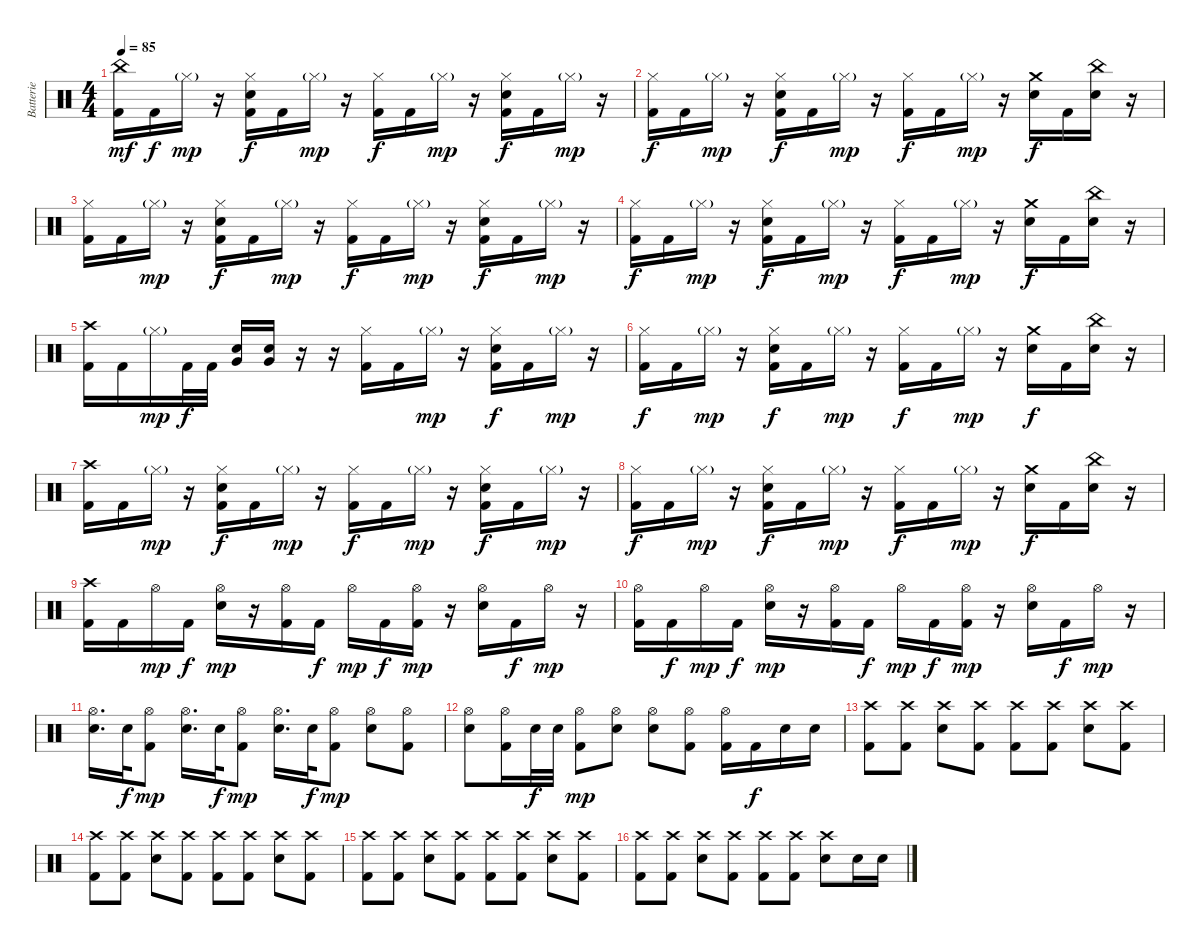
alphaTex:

\track ("Batterie" "Batterie") {instrument percussion}
\staff {score}
\articulation defaults
\ts (4 4)
\tempo 85
\clef neutral
\ks c
("China (hit)" "Kick (hit) 2").16{dy mf} "Kick (hit) 2".16{dy f} "Hi-Hat (closed)"{g}.16{dy mp} r.16 ("Hi-Hat (closed)" "Electric Snare (hit)" "Kick (hit) 2").16{dy f} "Kick (hit) 2".16 "Hi-Hat (closed)"{g}.16{dy mp} r.16 ("Hi-Hat (closed)" "Kick (hit) 2").16{dy f} "Kick (hit) 2".16 "Hi-Hat (closed)"{g}.16{dy mp} r.16 ("Hi-Hat (closed)" "Electric Snare (hit)" "Kick (hit) 2").16{dy f} "Kick (hit) 2".16 "Hi-Hat (closed)"{g}.16{dy mp} r.16 |
("Hi-Hat (closed)" "Kick (hit) 2").16{dy f} "Kick (hit) 2".16 "Hi-Hat (closed)"{g}.16{dy mp} r.16 ("Hi-Hat (closed)" "Electric Snare (hit)" "Kick (hit) 2").16{dy f} "Kick (hit) 2".16 "Hi-Hat (closed)"{g}.16{dy mp} r.16 ("Hi-Hat (closed)" "Kick (hit) 2").16{dy f} "Kick (hit) 2".16 "Hi-Hat (closed)"{g}.16{dy mp} r.16 ("Crash medium (hit)" "Electric Snare (hit)").16{dy f} "Kick (hit) 2".16 ("China (hit)" "Electric Snare (hit)").16 r.16 |
("Hi-Hat (closed)" "Kick (hit) 2").16 "Kick (hit) 2".16 "Hi-Hat (closed)"{g}.16{dy mp} r.16 ("Hi-Hat (closed)" "Electric Snare (hit)" "Kick (hit) 2").16{dy f} "Kick (hit) 2".16 "Hi-Hat (closed)"{g}.16{dy mp} r.16 ("Hi-Hat (closed)" "Kick (hit) 2").16{dy f} "Kick (hit) 2".16 "Hi-Hat (closed)"{g}.16{dy mp} r.16 ("Hi-Hat (closed)" "Electric Snare (hit)" "Kick (hit) 2").16{dy f} "Kick (hit) 2".16 "Hi-Hat (closed)"{g}.16{dy mp} r.16 |
("Hi-Hat (closed)" "Kick (hit) 2").16{dy f} "Kick (hit) 2".16 "Hi-Hat (closed)"{g}.16{dy mp} r.16 ("Hi-Hat (closed)" "Electric Snare (hit)" "Kick (hit) 2").16{dy f} "Kick (hit) 2".16 "Hi-Hat (closed)"{g}.16{dy mp} r.16 ("Hi-Hat (closed)" "Kick (hit) 2").16{dy f} "Kick (hit) 2".16 "Hi-Hat (closed)"{g}.16{dy mp} r.16 ("Crash medium (hit)" "Electric Snare (hit)").16{dy f} "Kick (hit) 2".16 ("China (hit)" "Electric Snare (hit)").16 r.16 |
("Crash high (hit)" "Kick (hit) 2").16 "Kick (hit) 2".16 "Hi-Hat (closed)"{g}.16{dy mp} "Kick (hit) 2".32{dy f} "Kick (hit) 2".32 ("Electric Snare (hit)" "Very Low Tom (hit)").16 ("Electric Snare (hit)" "Very Low Tom (hit)").16 r.16 r.16 ("Hi-Hat (closed)" "Kick (hit) 2").16 "Kick (hit) 2".16 "Hi-Hat (closed)"{g}.16{dy mp} r.16 ("Hi-Hat (closed)" "Electric Snare (hit)" "Kick (hit) 2").16{dy f} "Kick (hit) 2".16 "Hi-Hat (closed)"{g}.16{dy mp} r.16 |
("Hi-Hat (closed)" "Kick (hit) 2").16{dy f} "Kick (hit) 2".16 "Hi-Hat (closed)"{g}.16{dy mp} r.16 ("Hi-Hat (closed)" "Electric Snare (hit)" "Kick (hit) 2").16{dy f} "Kick (hit) 2".16 "Hi-Hat (closed)"{g}.16{dy mp} r.16 ("Hi-Hat (closed)" "Kick (hit) 2").16{dy f} "Kick (hit) 2".16 "Hi-Hat (closed)"{g}.16{dy mp} r.16 ("Crash medium (hit)" "Electric Snare (hit)").16{dy f} "Kick (hit) 2".16 ("China (hit)" "Electric Snare (hit)").16 r.16 |
("Crash high (hit)" "Kick (hit) 2").16 "Kick (hit) 2".16 "Hi-Hat (closed)"{g}.16{dy mp} r.16 ("Hi-Hat (closed)" "Electric Snare (hit)" "Kick (hit) 2").16{dy f} "Kick (hit) 2".16 "Hi-Hat (closed)"{g}.16{dy mp} r.16 ("Hi-Hat (closed)" "Kick (hit) 2").16{dy f} "Kick (hit) 2".16 "Hi-Hat (closed)"{g}.16{dy mp} r.16 ("Hi-Hat (closed)" "Electric Snare (hit)" "Kick (hit) 2").16{dy f} "Kick (hit) 2".16 "Hi-Hat (closed)"{g}.16{dy mp} r.16 |
("Hi-Hat (closed)" "Kick (hit) 2").16{dy f} "Kick (hit) 2".16 "Hi-Hat (closed)"{g}.16{dy mp} r.16 ("Hi-Hat (closed)" "Electric Snare (hit)" "Kick (hit) 2").16{dy f} "Kick (hit) 2".16 "Hi-Hat (closed)"{g}.16{dy mp} r.16 ("Hi-Hat (closed)" "Kick (hit) 2").16{dy f} "Kick (hit) 2".16 "Hi-Hat (closed)"{g}.16{dy mp} r.16 ("Crash medium (hit)" "Electric Snare (hit)").16{dy f} "Kick (hit) 2".16 ("China (hit)" "Electric Snare (hit)").16 r.16 |
("Crash high (hit)" "Kick (hit) 2").16 "Kick (hit) 2".16 "Hi-Hat (open)".16{dy mp} "Kick (hit) 2".16{dy f} ("Hi-Hat (open)" "Electric Snare (hit)").16{dy mp} r.16 ("Hi-Hat (open)" "Kick (hit) 2").16 "Kick (hit) 2".16{dy f} "Hi-Hat (open)".16{dy mp} "Kick (hit) 2".16{dy f} ("Hi-Hat (open)" "Kick (hit) 2").16{dy mp} r.16 ("Hi-Hat (open)" "Electric Snare (hit)").16 "Kick (hit) 2".16{dy f} "Hi-Hat (open)".16{dy mp} r.16 |
("Hi-Hat (open)" "Kick (hit) 2").16 "Kick (hit) 2".16{dy f} "Hi-Hat (open)".16{dy mp} "Kick (hit) 2".16{dy f} ("Hi-Hat (open)" "Electric Snare (hit)").16{dy mp} r.16 ("Hi-Hat (open)" "Kick (hit) 2").16 "Kick (hit) 2".16{dy f} "Hi-Hat (open)".16{dy mp} "Kick (hit) 2".16{dy f} ("Hi-Hat (open)" "Kick (hit) 2").16{dy mp} r.16 ("Hi-Hat (open)" "Electric Snare (hit)").16 "Kick (hit) 2".16{dy f} "Hi-Hat (open)".16{dy mp} r.16 |
("Hi-Hat (open)" "Electric Snare (hit)").16{d} "Electric Snare (hit)".32{dy f} ("Hi-Hat (open)" "Kick (hit) 2").8{dy mp} ("Hi-Hat (open)" "Electric Snare (hit)").16{d} "Electric Snare (hit)".32{dy f} ("Hi-Hat (open)" "Kick (hit) 2").8{dy mp} ("Hi-Hat (open)" "Electric Snare (hit)").16{d} "Electric Snare (hit)".32{dy f} ("Hi-Hat (open)" "Kick (hit) 2").8{dy mp} ("Hi-Hat (open)" "Electric Snare (hit)").8 ("Hi-Hat (open)" "Kick (hit) 2").8 |
("Hi-Hat (open)" "Electric Snare (hit)").8 ("Hi-Hat (open)" "Kick (hit) 2").16 "Electric Snare (hit)".32{dy f} "Electric Snare (hit)".32 ("Hi-Hat (open)" "Kick (hit) 2").8{dy mp} ("Hi-Hat (open)" "Electric Snare (hit)").8 ("Hi-Hat (open)" "Electric Snare (hit)").8 ("Hi-Hat (open)" "Kick (hit) 2").8 ("Hi-Hat (open)" "Kick (hit) 2").16 "Kick (hit) 2".16{dy f} "Electric Snare (hit)".16 "Electric Snare (hit)".16 |
("Crash high (hit)" "Kick (hit) 2").8 ("Crash high (hit)" "Kick (hit) 2").8 ("Crash high (hit)" "Electric Snare (hit)").8 ("Crash high (hit)" "Kick (hit) 2").8 ("Crash high (hit)" "Kick (hit) 2").8 ("Crash high (hit)" "Kick (hit) 2").8 ("Crash high (hit)" "Electric Snare (hit)").8 ("Crash high (hit)" "Kick (hit) 2").8 |
("Crash high (hit)" "Kick (hit) 2").8 ("Crash high (hit)" "Kick (hit) 2").8 ("Crash high (hit)" "Electric Snare (hit)").8 ("Crash high (hit)" "Kick (hit) 2").8 ("Crash high (hit)" "Kick (hit) 2").8 ("Crash high (hit)" "Kick (hit) 2").8 ("Crash high (hit)" "Electric Snare (hit)").8 ("Crash high (hit)" "Kick (hit) 2").8 |
("Crash high (hit)" "Kick (hit) 2").8 ("Crash high (hit)" "Kick (hit) 2").8 ("Crash high (hit)" "Electric Snare (hit)").8 ("Crash high (hit)" "Kick (hit) 2").8 ("Crash high (hit)" "Kick (hit) 2").8 ("Crash high (hit)" "Kick (hit) 2").8 ("Crash high (hit)" "Electric Snare (hit)").8 ("Crash high (hit)" "Kick (hit) 2").8 |
("Crash high (hit)" "Kick (hit) 2").8 ("Crash high (hit)" "Kick (hit) 2").8 ("Crash high (hit)" "Electric Snare (hit)").8 ("Crash high (hit)" "Kick (hit) 2").8 ("Crash high (hit)" "Kick (hit) 2").8 ("Crash high (hit)" "Kick (hit) 2").8 ("Crash high (hit)" "Electric Snare (hit)").8 "Electric Snare (hit)".16 "Electric Snare (hit)".16
